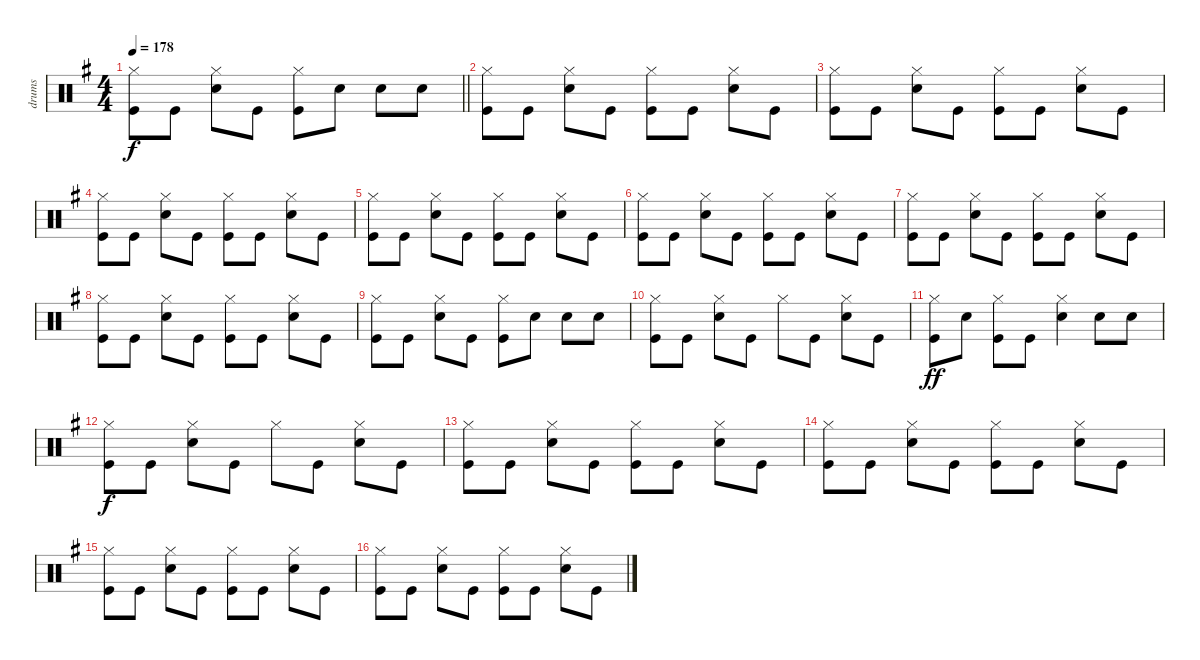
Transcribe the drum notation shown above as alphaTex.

\track ("drums" "drums") {instrument percussion}
\staff {score}
\articulation defaults
\ts (4 4)
\tempo 178
\clef neutral
\barLineRight lightlight
\ks eminor
("Hi-Hat (closed)" "Kick (hit)").8{dy f} "Kick (hit)".8 ("Hi-Hat (closed)" "Snare (hit) 2").8 "Kick (hit)".8 ("Hi-Hat (closed)" "Kick (hit)").8 "Snare (hit) 2".8 "Snare (hit) 2".8 "Snare (hit) 2".8 |
("Hi-Hat (closed)" "Kick (hit)").8 "Kick (hit)".8 ("Hi-Hat (closed)" "Snare (hit) 2").8 "Kick (hit)".8 ("Hi-Hat (closed)" "Kick (hit)").8 "Kick (hit)".8 ("Hi-Hat (closed)" "Snare (hit) 2").8 "Kick (hit)".8 |
("Hi-Hat (closed)" "Kick (hit)").8 "Kick (hit)".8 ("Hi-Hat (closed)" "Snare (hit) 2").8 "Kick (hit)".8 ("Hi-Hat (closed)" "Kick (hit)").8 "Kick (hit)".8 ("Hi-Hat (closed)" "Snare (hit) 2").8 "Kick (hit)".8 |
("Hi-Hat (closed)" "Kick (hit)").8 "Kick (hit)".8 ("Hi-Hat (closed)" "Snare (hit) 2").8 "Kick (hit)".8 ("Hi-Hat (closed)" "Kick (hit)").8 "Kick (hit)".8 ("Hi-Hat (closed)" "Snare (hit) 2").8 "Kick (hit)".8 |
("Hi-Hat (closed)" "Kick (hit)").8 "Kick (hit)".8 ("Hi-Hat (closed)" "Snare (hit) 2").8 "Kick (hit)".8 ("Hi-Hat (closed)" "Kick (hit)").8 "Kick (hit)".8 ("Hi-Hat (closed)" "Snare (hit) 2").8 "Kick (hit)".8 |
("Hi-Hat (closed)" "Kick (hit)").8 "Kick (hit)".8 ("Hi-Hat (closed)" "Snare (hit) 2").8 "Kick (hit)".8 ("Hi-Hat (closed)" "Kick (hit)").8 "Kick (hit)".8 ("Hi-Hat (closed)" "Snare (hit) 2").8 "Kick (hit)".8 |
("Hi-Hat (closed)" "Kick (hit)").8 "Kick (hit)".8 ("Hi-Hat (closed)" "Snare (hit) 2").8 "Kick (hit)".8 ("Hi-Hat (closed)" "Kick (hit)").8 "Kick (hit)".8 ("Hi-Hat (closed)" "Snare (hit) 2").8 "Kick (hit)".8 |
("Hi-Hat (closed)" "Kick (hit)").8 "Kick (hit)".8 ("Hi-Hat (closed)" "Snare (hit) 2").8 "Kick (hit)".8 ("Hi-Hat (closed)" "Kick (hit)").8 "Kick (hit)".8 ("Hi-Hat (closed)" "Snare (hit) 2").8 "Kick (hit)".8 |
("Hi-Hat (closed)" "Kick (hit)").8 "Kick (hit)".8 ("Hi-Hat (closed)" "Snare (hit) 2").8 "Kick (hit)".8 ("Hi-Hat (closed)" "Kick (hit)").8 "Snare (hit) 2".8 "Snare (hit) 2".8 "Snare (hit) 2".8 |
("Hi-Hat (closed)" "Kick (hit)").8 "Kick (hit)".8 ("Hi-Hat (closed)" "Snare (hit) 2").8 "Kick (hit)".8 "Hi-Hat (closed)".8 "Kick (hit)".8 ("Hi-Hat (closed)" "Snare (hit) 2").8 "Kick (hit)".8 |
("Hi-Hat (closed)" "Kick (hit)").8{dy ff} "Snare (hit) 2".8 ("Hi-Hat (closed)" "Kick (hit)").8 "Kick (hit)".8 ("Hi-Hat (closed)" "Snare (hit) 2").4 "Snare (hit) 2".8 "Snare (hit) 2".8 |
("Hi-Hat (closed)" "Kick (hit)").8{dy f} "Kick (hit)".8 ("Hi-Hat (closed)" "Snare (hit) 2").8 "Kick (hit)".8 "Hi-Hat (closed)".8 "Kick (hit)".8 ("Hi-Hat (closed)" "Snare (hit) 2").8 "Kick (hit)".8 |
("Hi-Hat (closed)" "Kick (hit)").8 "Kick (hit)".8 ("Hi-Hat (closed)" "Snare (hit) 2").8 "Kick (hit)".8 ("Hi-Hat (closed)" "Kick (hit)").8 "Kick (hit)".8 ("Hi-Hat (closed)" "Snare (hit) 2").8 "Kick (hit)".8 |
("Hi-Hat (closed)" "Kick (hit)").8 "Kick (hit)".8 ("Hi-Hat (closed)" "Snare (hit) 2").8 "Kick (hit)".8 ("Hi-Hat (closed)" "Kick (hit)").8 "Kick (hit)".8 ("Hi-Hat (closed)" "Snare (hit) 2").8 "Kick (hit)".8 |
("Hi-Hat (closed)" "Kick (hit)").8 "Kick (hit)".8 ("Hi-Hat (closed)" "Snare (hit) 2").8 "Kick (hit)".8 ("Hi-Hat (closed)" "Kick (hit)").8 "Kick (hit)".8 ("Hi-Hat (closed)" "Snare (hit) 2").8 "Kick (hit)".8 |
("Hi-Hat (closed)" "Kick (hit)").8 "Kick (hit)".8 ("Hi-Hat (closed)" "Snare (hit) 2").8 "Kick (hit)".8 ("Hi-Hat (closed)" "Kick (hit)").8 "Kick (hit)".8 ("Hi-Hat (closed)" "Snare (hit) 2").8 "Kick (hit)".8
